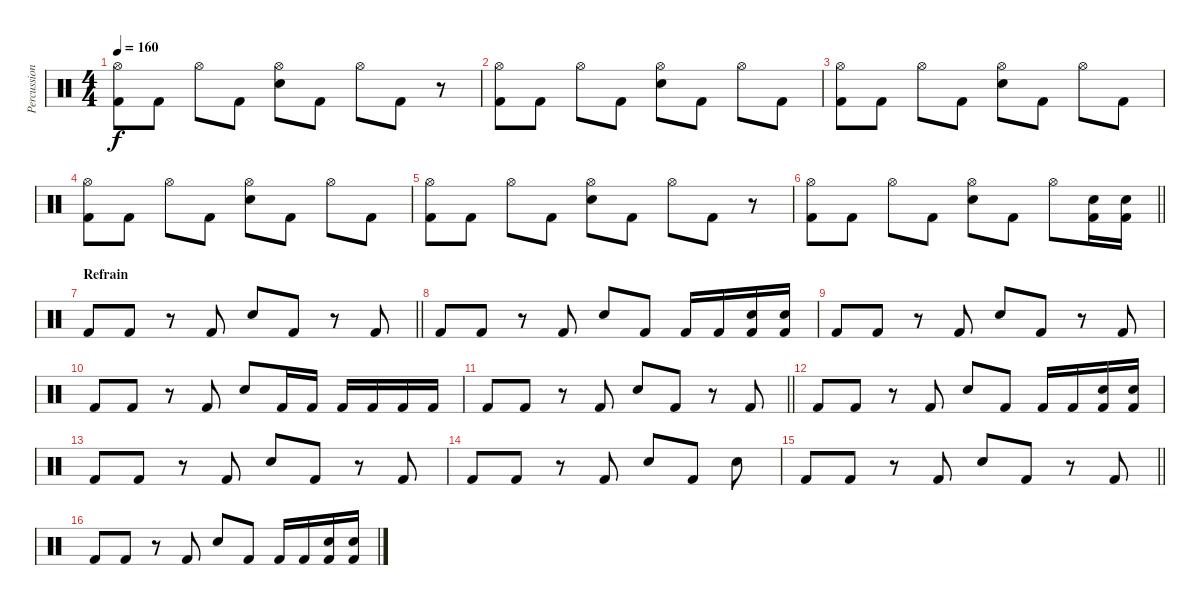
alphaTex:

\track ("Percussion" "Percussion") {instrument percussion}
\staff {score}
\articulation defaults
\ts (4 4)
\tempo 160
\clef neutral
\ks c
("Hi-Hat (open)" "Kick (hit) 2").8{dy f} "Kick (hit) 2".8 "Hi-Hat (open)".8 "Kick (hit) 2".8 ("Hi-Hat (open)" "Snare (hit) 2").8 "Kick (hit) 2".8 "Hi-Hat (open)".8 "Kick (hit) 2".8 r.8 |
("Hi-Hat (open)" "Kick (hit) 2").8 "Kick (hit) 2".8 "Hi-Hat (open)".8 "Kick (hit) 2".8 ("Hi-Hat (open)" "Snare (hit) 2").8 "Kick (hit) 2".8 "Hi-Hat (open)".8 "Kick (hit) 2".8 |
("Hi-Hat (open)" "Kick (hit) 2").8 "Kick (hit) 2".8 "Hi-Hat (open)".8 "Kick (hit) 2".8 ("Hi-Hat (open)" "Snare (hit) 2").8 "Kick (hit) 2".8 "Hi-Hat (open)".8 "Kick (hit) 2".8 |
("Hi-Hat (open)" "Kick (hit) 2").8 "Kick (hit) 2".8 "Hi-Hat (open)".8 "Kick (hit) 2".8 ("Hi-Hat (open)" "Snare (hit) 2").8 "Kick (hit) 2".8 "Hi-Hat (open)".8 "Kick (hit) 2".8 |
("Hi-Hat (open)" "Kick (hit) 2").8 "Kick (hit) 2".8 "Hi-Hat (open)".8 "Kick (hit) 2".8 ("Hi-Hat (open)" "Snare (hit) 2").8 "Kick (hit) 2".8 "Hi-Hat (open)".8 "Kick (hit) 2".8 r.8 |
\barLineRight lightlight
("Hi-Hat (open)" "Kick (hit) 2").8 "Kick (hit) 2".8 "Hi-Hat (open)".8 "Kick (hit) 2".8 ("Hi-Hat (open)" "Snare (hit) 2").8 "Kick (hit) 2".8 "Hi-Hat (open)".8 ("Kick (hit) 2" "Electric Snare (hit)").16 ("Kick (hit) 2" "Electric Snare (hit)").16 |
\section ("" "Refrain")
\barLineRight lightlight "Kick (hit) 2".8 "Kick (hit) 2".8
r.8 "Kick (hit) 2".8 "Snare (hit) 2".8 "Kick (hit) 2".8 r.8 "Kick (hit) 2".8 |
"Kick (hit) 2".8 "Kick (hit) 2".8 r.8 "Kick (hit) 2".8 "Snare (hit) 2".8 "Kick (hit) 2".8 "Kick (hit) 2".16 "Kick (hit) 2".16 ("Electric Snare (hit)" "Kick (hit) 2").16 ("Electric Snare (hit)" "Kick (hit) 2").16 |
"Kick (hit) 2".8 "Kick (hit) 2".8 r.8 "Kick (hit) 2".8 "Snare (hit) 2".8 "Kick (hit) 2".8 r.8 "Kick (hit) 2".8 |
"Kick (hit) 2".8 "Kick (hit) 2".8 r.8 "Kick (hit) 2".8 "Snare (hit) 2".8 "Kick (hit) 2".16 "Kick (hit) 2".16 "Kick (hit) 2".16 "Kick (hit) 2".16 "Kick (hit) 2".16 "Kick (hit) 2".16 |
\barLineRight lightlight "Kick (hit) 2".8 "Kick (hit) 2".8
r.8 "Kick (hit) 2".8 "Snare (hit) 2".8 "Kick (hit) 2".8 r.8 "Kick (hit) 2".8 |
"Kick (hit) 2".8 "Kick (hit) 2".8 r.8 "Kick (hit) 2".8 "Snare (hit) 2".8 "Kick (hit) 2".8 "Kick (hit) 2".16 "Kick (hit) 2".16 ("Electric Snare (hit)" "Kick (hit) 2").16 ("Electric Snare (hit)" "Kick (hit) 2").16 |
"Kick (hit) 2".8 "Kick (hit) 2".8 r.8 "Kick (hit) 2".8 "Snare (hit) 2".8 "Kick (hit) 2".8 r.8 "Kick (hit) 2".8 |
"Kick (hit) 2".8 "Kick (hit) 2".8 r.8 "Kick (hit) 2".8 "Snare (hit) 2".8 "Kick (hit) 2".8 "Snare (hit) 2".8 |
\barLineRight lightlight "Kick (hit) 2".8 "Kick (hit) 2".8
r.8 "Kick (hit) 2".8 "Snare (hit) 2".8 "Kick (hit) 2".8 r.8 "Kick (hit) 2".8 |
"Kick (hit) 2".8 "Kick (hit) 2".8 r.8 "Kick (hit) 2".8 "Snare (hit) 2".8 "Kick (hit) 2".8 "Kick (hit) 2".16 "Kick (hit) 2".16 ("Electric Snare (hit)" "Kick (hit) 2").16 ("Electric Snare (hit)" "Kick (hit) 2").16
